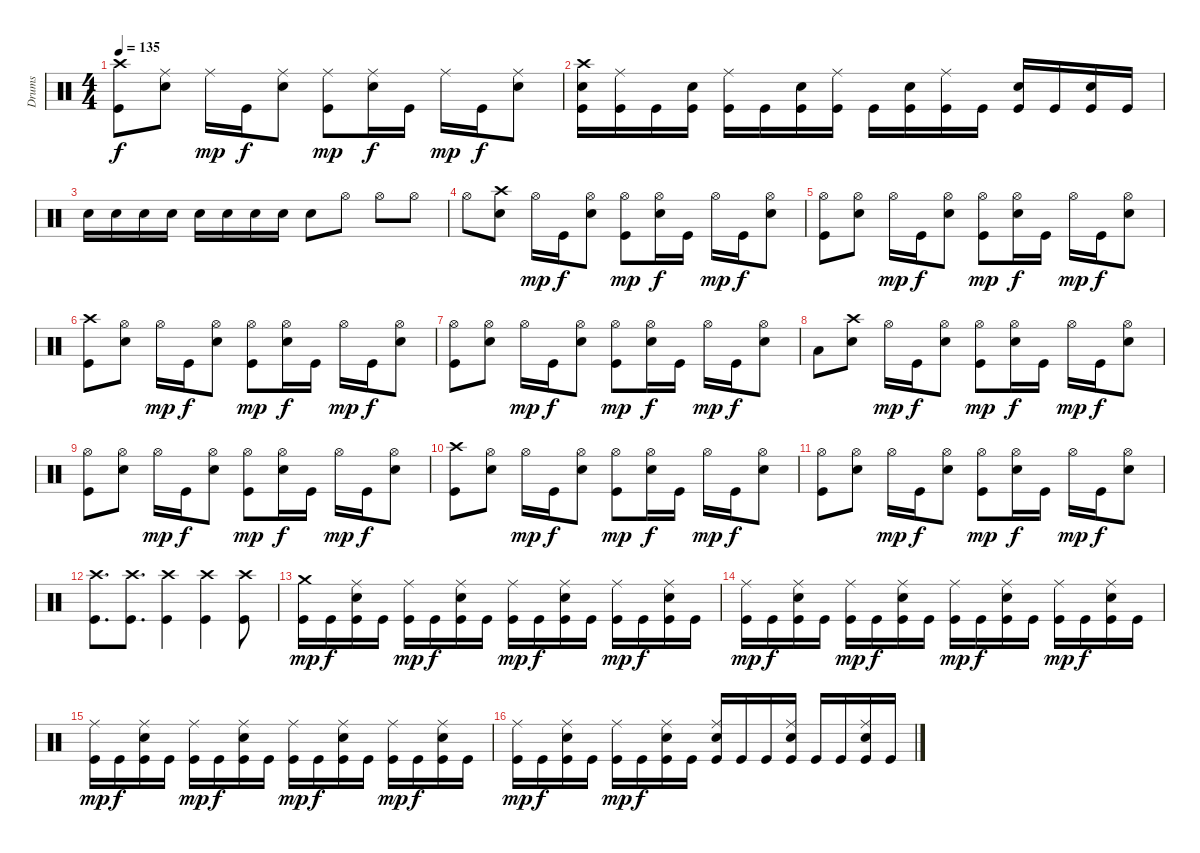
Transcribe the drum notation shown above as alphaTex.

\track ("Drums" "Drums") {instrument percussion}
\staff {score}
\articulation defaults
\ts (4 4)
\tempo 135
\clef neutral
\ks c
("Crash high (hit)" "Kick (hit)").8{dy f} ("Ride (middle)" "Snare (hit) 2").8 "Ride (middle)".16{dy mp} "Kick (hit)".16{dy f} ("Ride (middle)" "Snare (hit) 2").8 ("Ride (middle)" "Kick (hit)").8{dy mp} ("Ride (middle)" "Snare (hit) 2").16{dy f} "Kick (hit)".16 "Ride (middle)".16{dy mp} "Kick (hit)".16{dy f} ("Ride (middle)" "Snare (hit) 2").8 |
("Crash high (hit)" "Snare (hit) 2" "Kick (hit)").16 ("Ride (middle)" "Kick (hit)").16 "Kick (hit)".16 ("Snare (hit) 2" "Kick (hit)").16 ("Ride (middle)" "Kick (hit)").16 "Kick (hit)".16 ("Snare (hit) 2" "Kick (hit)").16 ("Ride (middle)" "Kick (hit)").16 "Kick (hit)".16 ("Snare (hit) 2" "Kick (hit)").16 ("Ride (middle)" "Kick (hit)").16 "Kick (hit)".16 ("Snare (hit) 2" "Kick (hit)").16 "Kick (hit)".16 ("Snare (hit) 2" "Kick (hit)").16 "Kick (hit)".16 |
"Snare (hit) 2".16 "Snare (hit) 2".16 "Snare (hit) 2".16 "Snare (hit) 2".16 "Snare (hit) 2".16 "Snare (hit) 2".16 "Snare (hit) 2".16 "Snare (hit) 2".16 "Snare (hit) 2".8 "Hi-Hat (open)".8 "Hi-Hat (open)".8 "Hi-Hat (open)".8 |
"Hi-Hat (open)".8 ("Crash high (hit)" "Snare (hit) 2").8 "Hi-Hat (open)".16{dy mp} "Kick (hit)".16{dy f} ("Hi-Hat (open)" "Snare (hit) 2").8 ("Hi-Hat (open)" "Kick (hit)").8{dy mp} ("Hi-Hat (open)" "Snare (hit) 2").16{dy f} "Kick (hit)".16 "Hi-Hat (open)".16{dy mp} "Kick (hit)".16{dy f} ("Hi-Hat (open)" "Snare (hit) 2").8 |
("Hi-Hat (open)" "Kick (hit)").8 ("Hi-Hat (open)" "Snare (hit) 2").8 "Hi-Hat (open)".16{dy mp} "Kick (hit)".16{dy f} ("Hi-Hat (open)" "Snare (hit) 2").8 ("Hi-Hat (open)" "Kick (hit)").8{dy mp} ("Hi-Hat (open)" "Snare (hit) 2").16{dy f} "Kick (hit)".16 "Hi-Hat (open)".16{dy mp} "Kick (hit)".16{dy f} ("Hi-Hat (open)" "Snare (hit) 2").8 |
("Crash high (hit)" "Kick (hit)").8 ("Hi-Hat (open)" "Snare (hit) 2").8 "Hi-Hat (open)".16{dy mp} "Kick (hit)".16{dy f} ("Hi-Hat (open)" "Snare (hit) 2").8 ("Hi-Hat (open)" "Kick (hit)").8{dy mp} ("Hi-Hat (open)" "Snare (hit) 2").16{dy f} "Kick (hit)".16 "Hi-Hat (open)".16{dy mp} "Kick (hit)".16{dy f} ("Hi-Hat (open)" "Snare (hit) 2").8 |
("Hi-Hat (open)" "Kick (hit)").8 ("Hi-Hat (open)" "Snare (hit) 2").8 "Hi-Hat (open)".16{dy mp} "Kick (hit)".16{dy f} ("Hi-Hat (open)" "Snare (hit) 2").8 ("Hi-Hat (open)" "Kick (hit)").8{dy mp} ("Hi-Hat (open)" "Snare (hit) 2").16{dy f} "Kick (hit)".16 "Hi-Hat (open)".16{dy mp} "Kick (hit)".16{dy f} ("Hi-Hat (open)" "Snare (hit) 2").8 |
"Low Tom (hit)".8 ("Crash high (hit)" "Snare (hit) 2").8 "Hi-Hat (open)".16{dy mp} "Kick (hit)".16{dy f} ("Hi-Hat (open)" "Snare (hit) 2").8 ("Hi-Hat (open)" "Kick (hit)").8{dy mp} ("Hi-Hat (open)" "Snare (hit) 2").16{dy f} "Kick (hit)".16 "Hi-Hat (open)".16{dy mp} "Kick (hit)".16{dy f} ("Hi-Hat (open)" "Snare (hit) 2").8 |
("Hi-Hat (open)" "Kick (hit)").8 ("Hi-Hat (open)" "Snare (hit) 2").8 "Hi-Hat (open)".16{dy mp} "Kick (hit)".16{dy f} ("Hi-Hat (open)" "Snare (hit) 2").8 ("Hi-Hat (open)" "Kick (hit)").8{dy mp} ("Hi-Hat (open)" "Snare (hit) 2").16{dy f} "Kick (hit)".16 "Hi-Hat (open)".16{dy mp} "Kick (hit)".16{dy f} ("Hi-Hat (open)" "Snare (hit) 2").8 |
("Crash high (hit)" "Kick (hit)").8 ("Hi-Hat (open)" "Snare (hit) 2").8 "Hi-Hat (open)".16{dy mp} "Kick (hit)".16{dy f} ("Hi-Hat (open)" "Snare (hit) 2").8 ("Hi-Hat (open)" "Kick (hit)").8{dy mp} ("Hi-Hat (open)" "Snare (hit) 2").16{dy f} "Kick (hit)".16 "Hi-Hat (open)".16{dy mp} "Kick (hit)".16{dy f} ("Hi-Hat (open)" "Snare (hit) 2").8 |
("Hi-Hat (open)" "Kick (hit)").8 ("Hi-Hat (open)" "Snare (hit) 2").8 "Hi-Hat (open)".16{dy mp} "Kick (hit)".16{dy f} ("Hi-Hat (open)" "Snare (hit) 2").8 ("Hi-Hat (open)" "Kick (hit)").8{dy mp} ("Hi-Hat (open)" "Snare (hit) 2").16{dy f} "Kick (hit)".16 "Hi-Hat (open)".16{dy mp} "Kick (hit)".16{dy f} ("Hi-Hat (open)" "Snare (hit) 2").8 |
("Crash high (hit)" "Kick (hit)").8{d} ("Crash high (hit)" "Kick (hit)").8{d} ("Crash high (hit)" "Kick (hit)").4 ("Crash high (hit)" "Kick (hit)").4 ("Crash high (hit)" "Kick (hit)").8 |
("Crash medium (hit)" "Kick (hit)").16{dy mp} "Kick (hit)".16{dy f} ("Ride (middle)" "Snare (hit) 2" "Kick (hit)").16 "Kick (hit)".16 ("Ride (middle)" "Kick (hit)").16{dy mp} "Kick (hit)".16{dy f} ("Ride (middle)" "Snare (hit) 2" "Kick (hit)").16 "Kick (hit)".16 ("Ride (middle)" "Kick (hit)").16{dy mp} "Kick (hit)".16{dy f} ("Ride (middle)" "Snare (hit) 2" "Kick (hit)").16 "Kick (hit)".16 ("Ride (middle)" "Kick (hit)").16{dy mp} "Kick (hit)".16{dy f} ("Ride (middle)" "Snare (hit) 2" "Kick (hit)").16 "Kick (hit)".16 |
("Ride (middle)" "Kick (hit)").16{dy mp} "Kick (hit)".16{dy f} ("Ride (middle)" "Snare (hit) 2" "Kick (hit)").16 "Kick (hit)".16 ("Ride (middle)" "Kick (hit)").16{dy mp} "Kick (hit)".16{dy f} ("Ride (middle)" "Snare (hit) 2" "Kick (hit)").16 "Kick (hit)".16 ("Ride (middle)" "Kick (hit)").16{dy mp} "Kick (hit)".16{dy f} ("Ride (middle)" "Snare (hit) 2" "Kick (hit)").16 "Kick (hit)".16 ("Ride (middle)" "Kick (hit)").16{dy mp} "Kick (hit)".16{dy f} ("Ride (middle)" "Snare (hit) 2" "Kick (hit)").16 "Kick (hit)".16 |
("Ride (middle)" "Kick (hit)").16{dy mp} "Kick (hit)".16{dy f} ("Ride (middle)" "Snare (hit) 2" "Kick (hit)").16 "Kick (hit)".16 ("Ride (middle)" "Kick (hit)").16{dy mp} "Kick (hit)".16{dy f} ("Ride (middle)" "Snare (hit) 2" "Kick (hit)").16 "Kick (hit)".16 ("Ride (middle)" "Kick (hit)").16{dy mp} "Kick (hit)".16{dy f} ("Ride (middle)" "Snare (hit) 2" "Kick (hit)").16 "Kick (hit)".16 ("Ride (middle)" "Kick (hit)").16{dy mp} "Kick (hit)".16{dy f} ("Ride (middle)" "Snare (hit) 2" "Kick (hit)").16 "Kick (hit)".16 |
("Ride (middle)" "Kick (hit)").16{dy mp} "Kick (hit)".16{dy f} ("Ride (middle)" "Snare (hit) 2" "Kick (hit)").16 "Kick (hit)".16 ("Ride (middle)" "Kick (hit)").16{dy mp} "Kick (hit)".16{dy f} ("Ride (middle)" "Snare (hit) 2" "Kick (hit)").16 "Kick (hit)".16 ("Ride (middle)" "Snare (hit) 2" "Kick (hit)").16 "Kick (hit)".16 "Kick (hit)".16 ("Ride (middle)" "Snare (hit) 2" "Kick (hit)").16 "Kick (hit)".16 "Kick (hit)".16 ("Ride (middle)" "Snare (hit) 2" "Kick (hit)").16 "Kick (hit)".16
